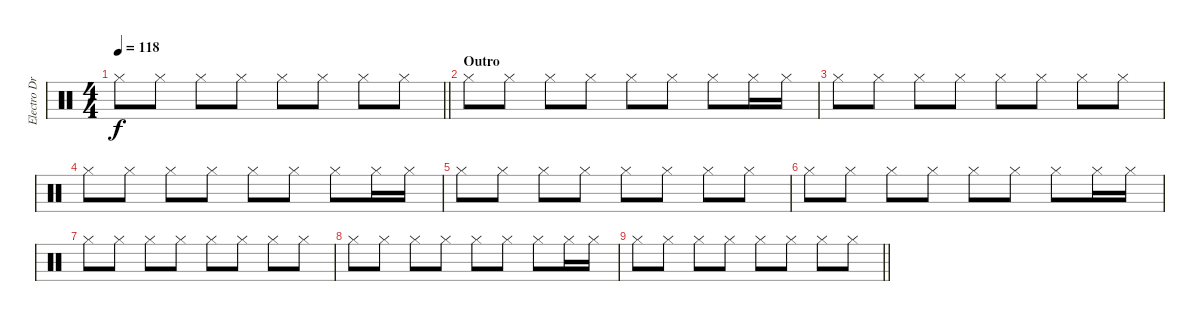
\track ("Electro Drums" "Electro Dr") {instrument percussion}
\staff {score}
\articulation defaults
\ts (4 4)
\tempo 118
\clef neutral
\barLineRight lightlight
\ks c "Hi-Hat (closed)".8{dy f} "Hi-Hat (closed)".8 "Hi-Hat (closed)".8 "Hi-Hat (closed)".8 "Hi-Hat (closed)".8 "Hi-Hat (closed)".8 "Hi-Hat (closed)".8 "Hi-Hat (closed)".8
|
\section ("" "Outro")
"Hi-Hat (closed)".8{volume 4} "Hi-Hat (closed)".8 "Hi-Hat (closed)".8 "Hi-Hat (closed)".8 "Hi-Hat (closed)".8 "Hi-Hat (closed)".8 "Hi-Hat (closed)".8 "Hi-Hat (closed)".16 "Hi-Hat (closed)".16 |
"Hi-Hat (closed)".8 "Hi-Hat (closed)".8 "Hi-Hat (closed)".8 "Hi-Hat (closed)".8 "Hi-Hat (closed)".8 "Hi-Hat (closed)".8 "Hi-Hat (closed)".8 "Hi-Hat (closed)".8 |
"Hi-Hat (closed)".8 "Hi-Hat (closed)".8 "Hi-Hat (closed)".8 "Hi-Hat (closed)".8 "Hi-Hat (closed)".8 "Hi-Hat (closed)".8 "Hi-Hat (closed)".8 "Hi-Hat (closed)".16 "Hi-Hat (closed)".16 |
"Hi-Hat (closed)".8 "Hi-Hat (closed)".8 "Hi-Hat (closed)".8 "Hi-Hat (closed)".8 "Hi-Hat (closed)".8 "Hi-Hat (closed)".8 "Hi-Hat (closed)".8 "Hi-Hat (closed)".8 |
"Hi-Hat (closed)".8 "Hi-Hat (closed)".8 "Hi-Hat (closed)".8 "Hi-Hat (closed)".8 "Hi-Hat (closed)".8 "Hi-Hat (closed)".8 "Hi-Hat (closed)".8 "Hi-Hat (closed)".16 "Hi-Hat (closed)".16 |
"Hi-Hat (closed)".8 "Hi-Hat (closed)".8 "Hi-Hat (closed)".8 "Hi-Hat (closed)".8 "Hi-Hat (closed)".8 "Hi-Hat (closed)".8 "Hi-Hat (closed)".8 "Hi-Hat (closed)".8 |
"Hi-Hat (closed)".8 "Hi-Hat (closed)".8 "Hi-Hat (closed)".8 "Hi-Hat (closed)".8 "Hi-Hat (closed)".8 "Hi-Hat (closed)".8 "Hi-Hat (closed)".8 "Hi-Hat (closed)".16 "Hi-Hat (closed)".16 |
\barLineRight lightlight "Hi-Hat (closed)".8 "Hi-Hat (closed)".8 "Hi-Hat (closed)".8 "Hi-Hat (closed)".8 "Hi-Hat (closed)".8 "Hi-Hat (closed)".8 "Hi-Hat (closed)".8 "Hi-Hat (closed)".8
